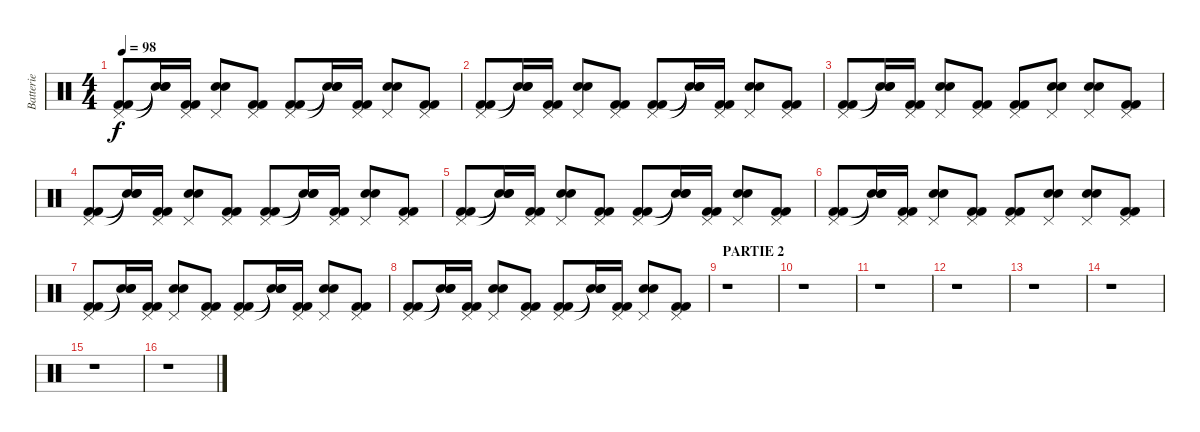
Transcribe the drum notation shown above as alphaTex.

\track ("Batterie" "Batterie") {instrument percussion}
\staff {score}
\articulation defaults
\ts (4 4)
\tempo 98
\clef neutral
\ks c
("Pedal Hi-Hat (hit)" "Kick (hit) 2" "Kick (hit) 2").8{dy f} ("Snare (hit)"{t} "Snare (hit)"{t} "Snare (hit)"{t}).16 ("Pedal Hi-Hat (hit)" "Kick (hit) 2" "Kick (hit) 2").16 ("Pedal Hi-Hat (hit)" "Electric Snare (hit)" "Electric Snare (hit)").8 ("Pedal Hi-Hat (hit)" "Kick (hit) 2" "Kick (hit) 2").8 ("Pedal Hi-Hat (hit)" "Kick (hit) 2" "Kick (hit) 2").8 ("Snare (hit)"{t} "Snare (hit)"{t} "Snare (hit)"{t}).16 ("Pedal Hi-Hat (hit)" "Kick (hit) 2" "Kick (hit) 2").16 ("Pedal Hi-Hat (hit)" "Electric Snare (hit)" "Electric Snare (hit)").8 ("Pedal Hi-Hat (hit)" "Kick (hit) 2" "Kick (hit) 2").8 |
("Pedal Hi-Hat (hit)" "Kick (hit) 2" "Kick (hit) 2").8 ("Snare (hit)"{t} "Snare (hit)"{t} "Snare (hit)"{t}).16 ("Pedal Hi-Hat (hit)" "Kick (hit) 2" "Kick (hit) 2").16 ("Pedal Hi-Hat (hit)" "Electric Snare (hit)" "Electric Snare (hit)").8 ("Pedal Hi-Hat (hit)" "Kick (hit) 2" "Kick (hit) 2").8 ("Pedal Hi-Hat (hit)" "Kick (hit) 2" "Kick (hit) 2").8 ("Snare (hit)"{t} "Snare (hit)"{t} "Snare (hit)"{t}).16 ("Pedal Hi-Hat (hit)" "Kick (hit) 2" "Kick (hit) 2").16 ("Pedal Hi-Hat (hit)" "Electric Snare (hit)" "Electric Snare (hit)").8 ("Pedal Hi-Hat (hit)" "Kick (hit) 2" "Kick (hit) 2").8 |
("Pedal Hi-Hat (hit)" "Kick (hit) 2" "Kick (hit) 2").8 ("Snare (hit)"{t} "Snare (hit)"{t} "Snare (hit)"{t}).16 ("Pedal Hi-Hat (hit)" "Kick (hit) 2" "Kick (hit) 2").16 ("Pedal Hi-Hat (hit)" "Electric Snare (hit)" "Electric Snare (hit)").8 ("Pedal Hi-Hat (hit)" "Kick (hit) 2" "Kick (hit) 2").8 ("Pedal Hi-Hat (hit)" "Kick (hit) 2" "Kick (hit) 2").8 ("Pedal Hi-Hat (hit)" "Electric Snare (hit)" "Electric Snare (hit)").8 ("Pedal Hi-Hat (hit)" "Electric Snare (hit)" "Electric Snare (hit)").8 ("Pedal Hi-Hat (hit)" "Kick (hit) 2" "Kick (hit) 2").8 |
("Pedal Hi-Hat (hit)" "Kick (hit) 2" "Kick (hit) 2").8 ("Snare (hit)"{t} "Snare (hit)"{t} "Snare (hit)"{t}).16 ("Pedal Hi-Hat (hit)" "Kick (hit) 2" "Kick (hit) 2").16 ("Pedal Hi-Hat (hit)" "Electric Snare (hit)" "Electric Snare (hit)").8 ("Pedal Hi-Hat (hit)" "Kick (hit) 2" "Kick (hit) 2").8 ("Pedal Hi-Hat (hit)" "Kick (hit) 2" "Kick (hit) 2").8 ("Snare (hit)"{t} "Snare (hit)"{t} "Snare (hit)"{t}).16 ("Pedal Hi-Hat (hit)" "Kick (hit) 2" "Kick (hit) 2").16 ("Pedal Hi-Hat (hit)" "Electric Snare (hit)" "Electric Snare (hit)").8 ("Pedal Hi-Hat (hit)" "Kick (hit) 2" "Kick (hit) 2").8 |
("Pedal Hi-Hat (hit)" "Kick (hit) 2" "Kick (hit) 2").8 ("Snare (hit)"{t} "Snare (hit)"{t} "Snare (hit)"{t}).16 ("Pedal Hi-Hat (hit)" "Kick (hit) 2" "Kick (hit) 2").16 ("Pedal Hi-Hat (hit)" "Electric Snare (hit)" "Electric Snare (hit)").8 ("Pedal Hi-Hat (hit)" "Kick (hit) 2" "Kick (hit) 2").8 ("Pedal Hi-Hat (hit)" "Kick (hit) 2" "Kick (hit) 2").8 ("Snare (hit)"{t} "Snare (hit)"{t} "Snare (hit)"{t}).16 ("Pedal Hi-Hat (hit)" "Kick (hit) 2" "Kick (hit) 2").16 ("Pedal Hi-Hat (hit)" "Electric Snare (hit)" "Electric Snare (hit)").8 ("Pedal Hi-Hat (hit)" "Kick (hit) 2" "Kick (hit) 2").8 |
("Pedal Hi-Hat (hit)" "Kick (hit) 2" "Kick (hit) 2").8 ("Snare (hit)"{t} "Snare (hit)"{t} "Snare (hit)"{t}).16 ("Pedal Hi-Hat (hit)" "Kick (hit) 2" "Kick (hit) 2").16 ("Pedal Hi-Hat (hit)" "Electric Snare (hit)" "Electric Snare (hit)").8 ("Pedal Hi-Hat (hit)" "Kick (hit) 2" "Kick (hit) 2").8 ("Pedal Hi-Hat (hit)" "Kick (hit) 2" "Kick (hit) 2").8 ("Pedal Hi-Hat (hit)" "Electric Snare (hit)" "Electric Snare (hit)").8 ("Pedal Hi-Hat (hit)" "Electric Snare (hit)" "Electric Snare (hit)").8 ("Pedal Hi-Hat (hit)" "Kick (hit) 2" "Kick (hit) 2").8 |
("Pedal Hi-Hat (hit)" "Kick (hit) 2" "Kick (hit) 2").8 ("Snare (hit)"{t} "Snare (hit)"{t} "Snare (hit)"{t}).16 ("Pedal Hi-Hat (hit)" "Kick (hit) 2" "Kick (hit) 2").16 ("Pedal Hi-Hat (hit)" "Electric Snare (hit)" "Electric Snare (hit)").8 ("Pedal Hi-Hat (hit)" "Kick (hit) 2" "Kick (hit) 2").8 ("Pedal Hi-Hat (hit)" "Kick (hit) 2" "Kick (hit) 2").8 ("Snare (hit)"{t} "Snare (hit)"{t} "Snare (hit)"{t}).16 ("Pedal Hi-Hat (hit)" "Kick (hit) 2" "Kick (hit) 2").16 ("Pedal Hi-Hat (hit)" "Electric Snare (hit)" "Electric Snare (hit)").8 ("Pedal Hi-Hat (hit)" "Kick (hit) 2" "Kick (hit) 2").8 |
("Pedal Hi-Hat (hit)" "Kick (hit) 2" "Kick (hit) 2").8 ("Snare (hit)"{t} "Snare (hit)"{t} "Snare (hit)"{t}).16 ("Pedal Hi-Hat (hit)" "Kick (hit) 2" "Kick (hit) 2").16 ("Pedal Hi-Hat (hit)" "Electric Snare (hit)" "Electric Snare (hit)").8 ("Pedal Hi-Hat (hit)" "Kick (hit) 2" "Kick (hit) 2").8 ("Pedal Hi-Hat (hit)" "Kick (hit) 2" "Kick (hit) 2").8 ("Snare (hit)"{t} "Snare (hit)"{t} "Snare (hit)"{t}).16 ("Pedal Hi-Hat (hit)" "Kick (hit) 2" "Kick (hit) 2").16 ("Pedal Hi-Hat (hit)" "Electric Snare (hit)" "Electric Snare (hit)").8 ("Pedal Hi-Hat (hit)" "Kick (hit) 2" "Kick (hit) 2").8 |
\section ("" "PARTIE 2")
r.1 |
r.1 |
r.1 |
r.1 |
r.1 |
r.1 |
r.1 |
r.1
